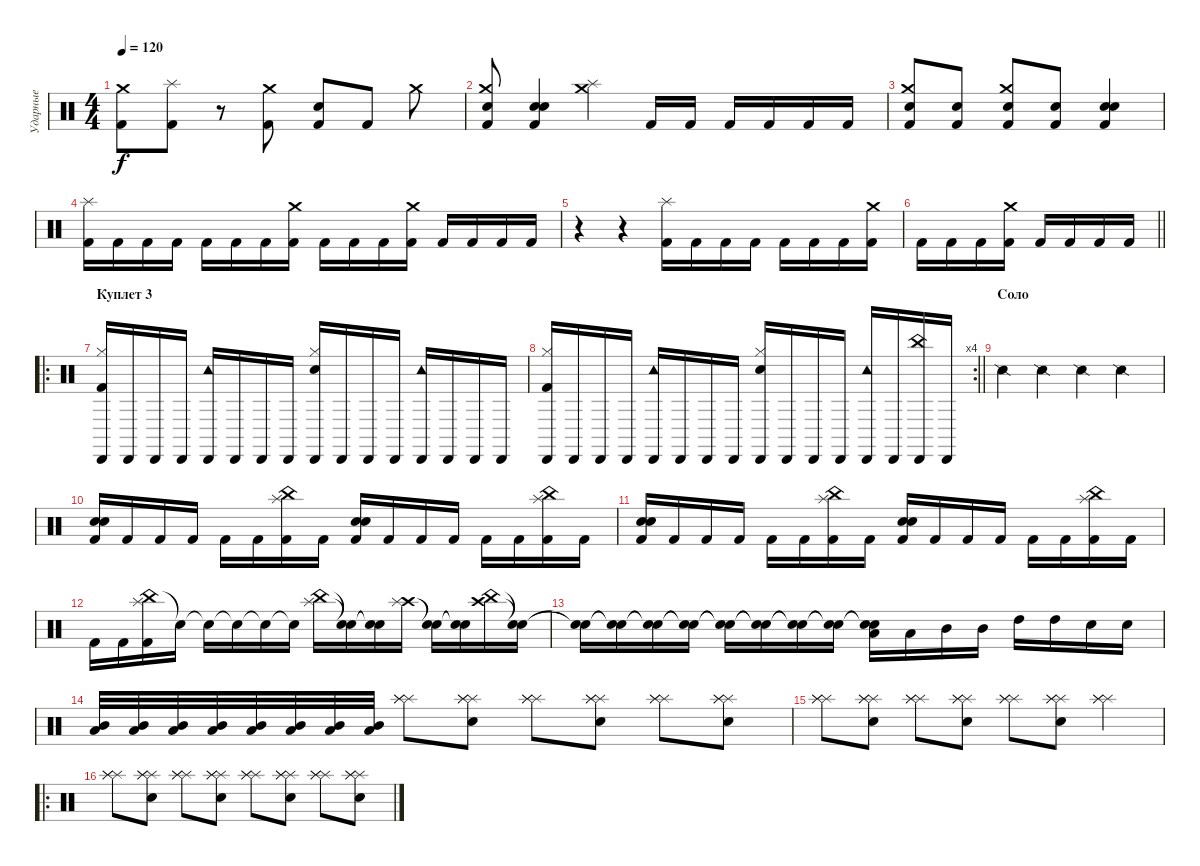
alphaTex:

\track ("Ударные" "Ударные") {instrument percussion}
\staff {score}
\articulation defaults
\ts (4 4)
\tempo 120
\clef neutral
\ks c
("Kick (hit) 2" "Crash medium (hit)").8{dy f} ("Kick (hit) 2" "Splash (hit)").8 r.8 ("Kick (hit) 2" "Crash medium (hit)").8 ("Kick (hit) 2" "Snare (hit) 2").8 "Kick (hit) 2".8 "Crash medium (hit)".8 |
("Kick (hit) 2" "Snare (hit) 2" "Crash medium (hit)").8 ("Kick (hit) 2" "Snare (hit) 2" "Electric Snare (hit)").4 ("Splash (hit)" "Crash medium (hit)").4 "Kick (hit) 2".16 "Kick (hit) 2".16 "Kick (hit) 2".16 "Kick (hit) 2".16 "Kick (hit) 2".16 "Kick (hit) 2".16 |
("Kick (hit) 2" "Snare (hit) 2" "Crash medium (hit)").8 ("Kick (hit) 2" "Electric Snare (hit)").8 ("Kick (hit) 2" "Snare (hit) 2" "Crash medium (hit)").8 ("Kick (hit) 2" "Electric Snare (hit)").8 ("Kick (hit) 2" "Snare (hit) 2" "Electric Snare (hit)").4 |
("Kick (hit) 2" "Splash (hit)").16 "Kick (hit) 2".16 "Kick (hit) 2".16 "Kick (hit) 2".16 "Kick (hit) 2".16 "Kick (hit) 2".16 "Kick (hit) 2".16 ("Kick (hit) 2" "Crash medium (hit)").16 "Kick (hit) 2".16 "Kick (hit) 2".16 "Kick (hit) 2".16 ("Kick (hit) 2" "Crash medium (hit)").16 "Kick (hit) 2".16 "Kick (hit) 2".16 "Kick (hit) 2".16 "Kick (hit) 2".16 |
r.4 r.4 ("Kick (hit) 2" "Splash (hit)").16 "Kick (hit) 2".16 "Kick (hit) 2".16 "Kick (hit) 2".16 "Kick (hit) 2".16 "Kick (hit) 2".16 "Kick (hit) 2".16 ("Kick (hit) 2" "Crash medium (hit)").16 |
\barLineRight lightlight "Kick (hit) 2".16 "Kick (hit) 2".16 "Kick (hit) 2".16
("Kick (hit) 2" "Crash medium (hit)").16 "Kick (hit) 2".16 "Kick (hit) 2".16 "Kick (hit) 2".16 "Kick (hit) 2".16 |
\ro
\section ("" "Куплет 3")
("Cabasa (hit)" "Kick (hit) 2" "Hi-Hat (closed)").16 "Cabasa (hit)".16 "Cabasa (hit)".16 "Cabasa (hit)".16 ("Cabasa (hit)" "Tambourine (hit)").16 "Cabasa (hit)".16 "Cabasa (hit)".16 "Cabasa (hit)".16 ("Cabasa (hit)" "Snare (hit) 2" "Hi-Hat (closed)").16 "Cabasa (hit)".16 "Cabasa (hit)".16 "Cabasa (hit)".16 ("Cabasa (hit)" "Tambourine (hit)").16 "Cabasa (hit)".16 "Cabasa (hit)".16 "Cabasa (hit)".16 |
\rc 4
\barLineRight lightlight
("Cabasa (hit)" "Kick (hit) 2" "Hi-Hat (closed)").16 "Cabasa (hit)".16 "Cabasa (hit)".16 "Cabasa (hit)".16 ("Cabasa (hit)" "Tambourine (hit)").16 "Cabasa (hit)".16 "Cabasa (hit)".16 "Cabasa (hit)".16 ("Cabasa (hit)" "Hi-Hat (closed)" "Snare (hit) 2").16 "Cabasa (hit)".16 "Cabasa (hit)".16 "Cabasa (hit)".16 ("Cabasa (hit)" "Tambourine (hit)").16 "Cabasa (hit)".16 ("Cabasa (hit)" "China (hit)").16 "Cabasa (hit)".16 |
\section ("" "Соло")
"Snare (side stick) 2".4 "Snare (side stick) 2".4 "Snare (side stick) 2".4 "Snare (side stick) 2".4 |
("Snare (hit) 2" "Electric Snare (hit)" "Kick (hit) 2").16 "Kick (hit) 2".16 "Kick (hit) 2".16 "Kick (hit) 2".16 "Kick (hit) 2".16 "Kick (hit) 2".16 ("Splash (hit)" "China (hit)" "Kick (hit) 2").16 "Kick (hit) 2".16 ("Snare (hit) 2" "Electric Snare (hit)" "Kick (hit) 2").16 "Kick (hit) 2".16 "Kick (hit) 2".16 "Kick (hit) 2".16 "Kick (hit) 2".16 "Kick (hit) 2".16 ("China (hit)" "Splash (hit)" "Kick (hit) 2").16 "Kick (hit) 2".16 |
("Electric Snare (hit)" "Snare (hit) 2" "Kick (hit) 2").16 "Kick (hit) 2".16 "Kick (hit) 2".16 "Kick (hit) 2".16 "Kick (hit) 2".16 "Kick (hit) 2".16 ("China (hit)" "Splash (hit)" "Kick (hit) 2").16 "Kick (hit) 2".16 ("Electric Snare (hit)" "Snare (hit) 2" "Kick (hit) 2").16 "Kick (hit) 2".16 "Kick (hit) 2".16 "Kick (hit) 2".16 "Kick (hit) 2".16 "Kick (hit) 2".16 ("China (hit)" "Splash (hit)" "Kick (hit) 2").16 "Kick (hit) 2".16 |
"Kick (hit) 2".16 "Kick (hit) 2".16 ("China (hit)" "Splash (hit)" "Kick (hit) 2").16 "Snare (hit)"{t}.16 "Snare (hit)"{t}.16 "Snare (hit)"{t}.16 "Snare (hit)"{t}.16 "Snare (hit)"{t}.16 ("China (hit)" "Splash (hit)").16 ("Snare (hit)"{t} "Snare (hit)"{t}).16 ("Snare (hit)"{t} "Snare (hit)"{t}).16 ("Crash high (hit)" "Splash (hit)").16 ("Snare (hit)"{t} "Snare (hit)"{t}).16 ("Snare (hit)"{t} "Snare (hit)"{t}).16 ("China (hit)" "Crash high (hit)").16 ("Snare (hit)"{t} "Snare (hit)"{t}).16 |
("Snare (hit)"{t} "Snare (hit)"{t}).16 ("Snare (hit)"{t} "Snare (hit)"{t}).16 ("Snare (hit)"{t} "Snare (hit)"{t}).16 ("Snare (hit)"{t} "Snare (hit)"{t}).16 ("Snare (hit)"{t} "Snare (hit)"{t}).16 ("Snare (hit)"{t} "Snare (hit)"{t}).16 ("Snare (hit)"{t} "Snare (hit)"{t}).16 ("Snare (hit)"{t} "Snare (hit)"{t}).16 ("Snare (hit)"{t} "Snare (hit)"{t} "Low Tom (hit)").16 "Low Tom (hit)".16 "Mid Tom (hit)".16 "Mid Tom (hit)".16 "High Tom (hit)".16 "High Tom (hit)".16 "Snare (hit) 2".16 "Snare (hit) 2".16 |
("Mid Tom (hit)" "Low Tom (hit)").32 ("Mid Tom (hit)" "Low Tom (hit)").32 ("Mid Tom (hit)" "Low Tom (hit)").32 ("Mid Tom (hit)" "Low Tom (hit)").32 ("Mid Tom (hit)" "Low Tom (hit)").32 ("Mid Tom (hit)" "Low Tom (hit)").32 ("Mid Tom (hit)" "Low Tom (hit)").32 ("Mid Tom (hit)" "Low Tom (hit)").32 ("Splash (hit)" "Splash (hit)" "Splash (hit)").8 ("Snare (hit) 2" "Splash (hit)" "Splash (hit)" "Splash (hit)").8 ("Splash (hit)" "Splash (hit)" "Splash (hit)").8 ("Snare (hit) 2" "Splash (hit)" "Splash (hit)" "Splash (hit)").8 ("Splash (hit)" "Splash (hit)" "Splash (hit)").8 ("Snare (hit) 2" "Splash (hit)" "Splash (hit)" "Splash (hit)").8 |
("Splash (hit)" "Splash (hit)" "Splash (hit)").8 ("Snare (hit) 2" "Splash (hit)" "Splash (hit)" "Splash (hit)").8 ("Splash (hit)" "Splash (hit)" "Splash (hit)").8 ("Snare (hit) 2" "Splash (hit)" "Splash (hit)" "Splash (hit)").8 ("Splash (hit)" "Splash (hit)" "Splash (hit)").8 ("Snare (hit) 2" "Splash (hit)" "Splash (hit)" "Splash (hit)").8 ("Splash (hit)" "Splash (hit)" "Splash (hit)").4 |
\ro
("Splash (hit)" "Splash (hit)" "Splash (hit)").8 ("Snare (hit) 2" "Splash (hit)" "Splash (hit)" "Splash (hit)").8 ("Splash (hit)" "Splash (hit)" "Splash (hit)").8 ("Snare (hit) 2" "Splash (hit)" "Splash (hit)" "Splash (hit)").8 ("Splash (hit)" "Splash (hit)" "Splash (hit)").8 ("Snare (hit) 2" "Splash (hit)" "Splash (hit)" "Splash (hit)").8 ("Splash (hit)" "Splash (hit)" "Splash (hit)").8 ("Snare (hit) 2" "Splash (hit)" "Splash (hit)" "Splash (hit)").8
